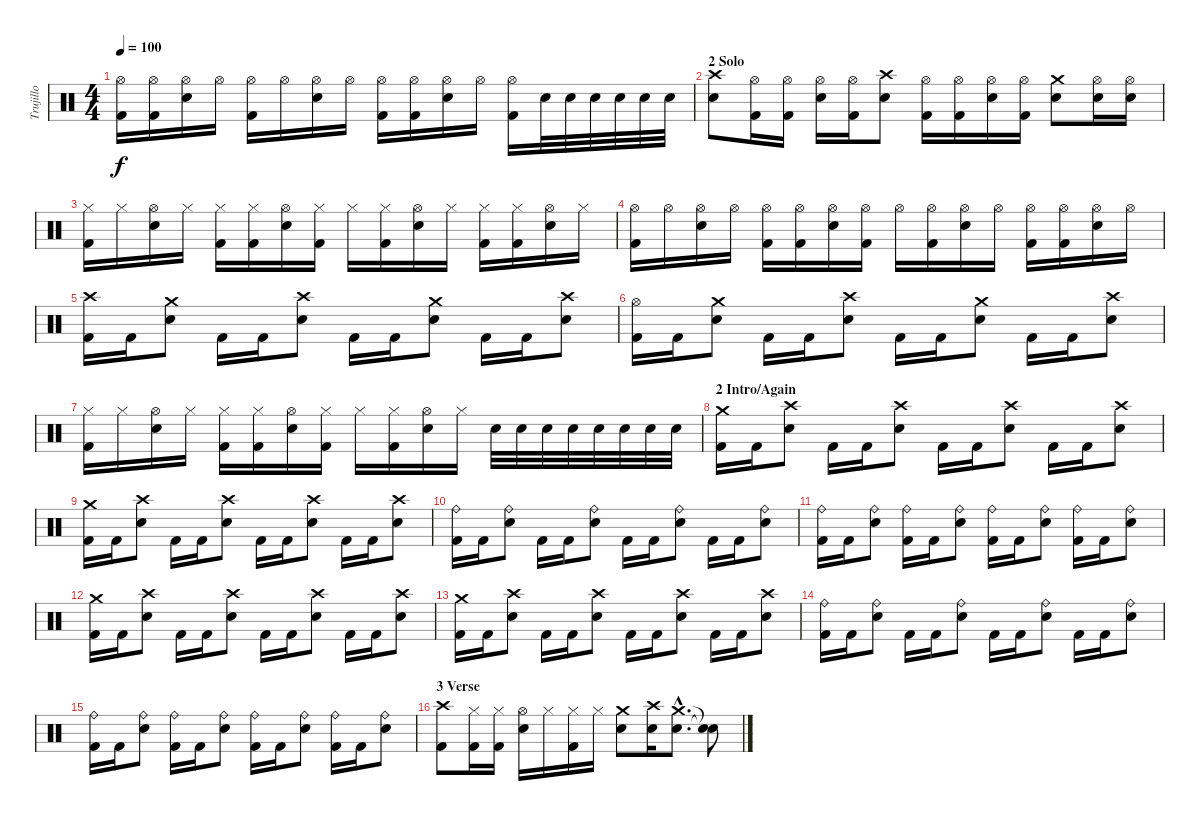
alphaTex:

\track ("Trujillo" "Trujillo") {instrument percussion}
\staff {score}
\articulation defaults
\ts (4 4)
\tempo 100
\clef neutral
\ks c
("Hi-Hat (open)" "Kick (hit) 2").16{dy f} ("Hi-Hat (open)" "Kick (hit) 2").16 ("Hi-Hat (open)" "Electric Snare (hit)").16 "Hi-Hat (open)".16 ("Hi-Hat (open)" "Kick (hit) 2").16 "Hi-Hat (open)".16 ("Hi-Hat (open)" "Electric Snare (hit)").16 "Hi-Hat (open)".16 ("Hi-Hat (open)" "Kick (hit) 2").16 ("Hi-Hat (open)" "Kick (hit) 2").16 ("Hi-Hat (open)" "Electric Snare (hit)").16 "Hi-Hat (open)".16 ("Hi-Hat (open)" "Kick (hit) 2").16 "Electric Snare (hit)".32 "Electric Snare (hit)".32 "Electric Snare (hit)".32 "Electric Snare (hit)".32 "Electric Snare (hit)".32 "Electric Snare (hit)".32 |
\section ("" "2 Solo")
("Crash high (hit)" "Electric Snare (hit)").8 ("Hi-Hat (open)" "Kick (hit) 2").16 ("Hi-Hat (open)" "Kick (hit) 2").16 ("Hi-Hat (open)" "Electric Snare (hit)").16 ("Hi-Hat (open)" "Kick (hit) 2").16 ("Crash high (hit)" "Electric Snare (hit)").8 ("Hi-Hat (open)" "Kick (hit) 2").16 ("Hi-Hat (open)" "Kick (hit) 2").16 ("Hi-Hat (open)" "Electric Snare (hit)").16 ("Hi-Hat (open)" "Kick (hit) 2").16 ("Crash medium (hit)" "Electric Snare (hit)").8 ("Hi-Hat (open)" "Electric Snare (hit)").16 ("Hi-Hat (open)" "Electric Snare (hit)").16 |
("Hi-Hat (closed)" "Kick (hit) 2").16 "Hi-Hat (closed)".16 ("Hi-Hat (open)" "Electric Snare (hit)").16 "Hi-Hat (closed)".16 ("Hi-Hat (closed)" "Kick (hit) 2").16 ("Hi-Hat (closed)" "Kick (hit) 2").16 ("Hi-Hat (open)" "Electric Snare (hit)").16 ("Hi-Hat (closed)" "Kick (hit) 2").16 "Hi-Hat (closed)".16 ("Hi-Hat (closed)" "Kick (hit) 2").16 ("Hi-Hat (open)" "Electric Snare (hit)").16 "Hi-Hat (closed)".16 ("Hi-Hat (closed)" "Kick (hit) 2").16 ("Hi-Hat (closed)" "Kick (hit) 2").16 ("Hi-Hat (open)" "Electric Snare (hit)").16 "Hi-Hat (closed)".16 |
("Hi-Hat (open)" "Kick (hit) 2").16 "Hi-Hat (open)".16 ("Hi-Hat (open)" "Electric Snare (hit)").16 "Hi-Hat (open)".16 ("Hi-Hat (open)" "Kick (hit) 2").16 ("Hi-Hat (open)" "Kick (hit) 2").16 ("Hi-Hat (open)" "Electric Snare (hit)").16 ("Hi-Hat (open)" "Kick (hit) 2").16 "Hi-Hat (open)".16 ("Hi-Hat (open)" "Kick (hit) 2").16 ("Hi-Hat (open)" "Electric Snare (hit)").16 "Hi-Hat (open)".16 ("Hi-Hat (open)" "Kick (hit) 2").16 ("Hi-Hat (open)" "Kick (hit) 2").16 ("Hi-Hat (open)" "Electric Snare (hit)").16 "Hi-Hat (open)".16 |
("Crash high (hit)" "Kick (hit) 2").16 "Kick (hit) 2".16 ("Crash medium (hit)" "Electric Snare (hit)").8 "Kick (hit) 2".16 "Kick (hit) 2".16 ("Crash high (hit)" "Electric Snare (hit)").8 "Kick (hit) 2".16 "Kick (hit) 2".16 ("Crash medium (hit)" "Electric Snare (hit)").8 "Kick (hit) 2".16 "Kick (hit) 2".16 ("Crash high (hit)" "Electric Snare (hit)").8 |
("Hi-Hat (open)" "Kick (hit) 2").16 "Kick (hit) 2".16 ("Crash medium (hit)" "Electric Snare (hit)").8 "Kick (hit) 2".16 "Kick (hit) 2".16 ("Crash high (hit)" "Electric Snare (hit)").8 "Kick (hit) 2".16 "Kick (hit) 2".16 ("Crash medium (hit)" "Electric Snare (hit)").8 "Kick (hit) 2".16 "Kick (hit) 2".16 ("Crash high (hit)" "Electric Snare (hit)").8 |
("Hi-Hat (closed)" "Kick (hit) 2").16 "Hi-Hat (closed)".16 ("Hi-Hat (open)" "Electric Snare (hit)").16 "Hi-Hat (closed)".16 ("Hi-Hat (closed)" "Kick (hit) 2").16 ("Hi-Hat (closed)" "Kick (hit) 2").16 ("Hi-Hat (open)" "Electric Snare (hit)").16 ("Hi-Hat (closed)" "Kick (hit) 2").16 "Hi-Hat (closed)".16 ("Hi-Hat (closed)" "Kick (hit) 2").16 ("Hi-Hat (open)" "Electric Snare (hit)").16 "Hi-Hat (closed)".16 "Electric Snare (hit)".32 "Electric Snare (hit)".32 "Electric Snare (hit)".32 "Electric Snare (hit)".32 "Electric Snare (hit)".32 "Electric Snare (hit)".32 "Electric Snare (hit)".32 "Electric Snare (hit)".32 |
\section ("" "2 Intro/Again")
("Crash medium (hit)" "Kick (hit) 2").16 "Kick (hit) 2".16 ("Crash high (hit)" "Electric Snare (hit)").8 "Kick (hit) 2".16 "Kick (hit) 2".16 ("Crash high (hit)" "Electric Snare (hit)").8 "Kick (hit) 2".16 "Kick (hit) 2".16 ("Crash high (hit)" "Electric Snare (hit)").8 "Kick (hit) 2".16 "Kick (hit) 2".16 ("Crash high (hit)" "Electric Snare (hit)").8 |
("Crash medium (hit)" "Kick (hit) 2").16 "Kick (hit) 2".16 ("Crash high (hit)" "Electric Snare (hit)").8 "Kick (hit) 2".16 "Kick (hit) 2".16 ("Crash high (hit)" "Electric Snare (hit)").8 "Kick (hit) 2".16 "Kick (hit) 2".16 ("Crash high (hit)" "Electric Snare (hit)").8 "Kick (hit) 2".16 "Kick (hit) 2".16 ("Crash high (hit)" "Electric Snare (hit)").8 |
("Ride (bell)" "Kick (hit) 2").16 "Kick (hit) 2".16 ("Ride (bell)" "Electric Snare (hit)").8 "Kick (hit) 2".16 "Kick (hit) 2".16 ("Ride (bell)" "Electric Snare (hit)").8 "Kick (hit) 2".16 "Kick (hit) 2".16 ("Ride (bell)" "Electric Snare (hit)").8 "Kick (hit) 2".16 "Kick (hit) 2".16 ("Ride (bell)" "Electric Snare (hit)").8 |
("Ride (bell)" "Kick (hit) 2").16 "Kick (hit) 2".16 ("Ride (bell)" "Electric Snare (hit)").8 ("Ride (bell)" "Kick (hit) 2").16 "Kick (hit) 2".16 ("Ride (bell)" "Electric Snare (hit)").8 ("Ride (bell)" "Kick (hit) 2").16 "Kick (hit) 2".16 ("Ride (bell)" "Electric Snare (hit)").8 ("Ride (bell)" "Kick (hit) 2").16 "Kick (hit) 2".16 ("Ride (bell)" "Electric Snare (hit)").8 |
("Crash medium (hit)" "Kick (hit) 2").16 "Kick (hit) 2".16 ("Crash high (hit)" "Electric Snare (hit)").8 "Kick (hit) 2".16 "Kick (hit) 2".16 ("Crash high (hit)" "Electric Snare (hit)").8 "Kick (hit) 2".16 "Kick (hit) 2".16 ("Crash high (hit)" "Electric Snare (hit)").8 "Kick (hit) 2".16 "Kick (hit) 2".16 ("Crash high (hit)" "Electric Snare (hit)").8 |
("Crash medium (hit)" "Kick (hit) 2").16 "Kick (hit) 2".16 ("Crash high (hit)" "Electric Snare (hit)").8 "Kick (hit) 2".16 "Kick (hit) 2".16 ("Crash high (hit)" "Electric Snare (hit)").8 "Kick (hit) 2".16 "Kick (hit) 2".16 ("Crash high (hit)" "Electric Snare (hit)").8 "Kick (hit) 2".16 "Kick (hit) 2".16 ("Crash high (hit)" "Electric Snare (hit)").8 |
("Ride (bell)" "Kick (hit) 2").16 "Kick (hit) 2".16 ("Ride (bell)" "Electric Snare (hit)").8 "Kick (hit) 2".16 "Kick (hit) 2".16 ("Ride (bell)" "Electric Snare (hit)").8 "Kick (hit) 2".16 "Kick (hit) 2".16 ("Ride (bell)" "Electric Snare (hit)").8 "Kick (hit) 2".16 "Kick (hit) 2".16 ("Ride (bell)" "Electric Snare (hit)").8 |
("Ride (bell)" "Kick (hit) 2").16 "Kick (hit) 2".16 ("Ride (bell)" "Electric Snare (hit)").8 ("Ride (bell)" "Kick (hit) 2").16 "Kick (hit) 2".16 ("Ride (bell)" "Electric Snare (hit)").8 ("Ride (bell)" "Kick (hit) 2").16 "Kick (hit) 2".16 ("Ride (bell)" "Electric Snare (hit)").8 ("Ride (bell)" "Kick (hit) 2").16 "Kick (hit) 2".16 ("Ride (bell)" "Electric Snare (hit)").8 |
\section ("" "3 Verse")
("Crash high (hit)" "Kick (hit) 2").8 ("Hi-Hat (closed)" "Kick (hit) 2").16 ("Hi-Hat (closed)" "Kick (hit) 2").16 ("Hi-Hat (open)" "Electric Snare (hit)").16 "Hi-Hat (closed)".16 ("Hi-Hat (closed)" "Kick (hit) 2").16 "Hi-Hat (closed)".16 ("Crash medium (hit)" "Electric Snare (hit)").8 ("Crash high (hit)" "Snare (hit) 2").16 ("Crash medium (hit)"{hac} "Electric Snare (hit)"{hac}).8{d} ("Snare (hit)"{t} "Snare (hit)"{t}).8
